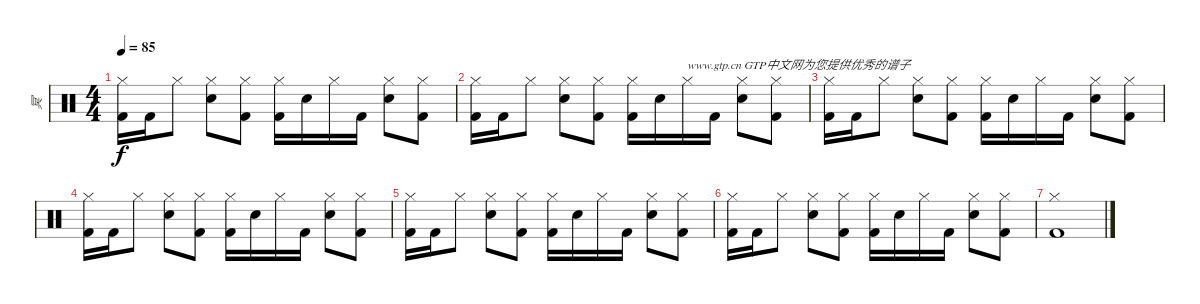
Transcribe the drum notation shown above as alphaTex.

\track ("冥" "冥") {instrument percussion}
\staff {score}
\articulation defaults
\ts (4 4)
\tempo 85
\clef neutral
\ks c
("Hi-Hat (closed)" "Kick (hit) 2").16{dy f} "Kick (hit) 2".16 "Hi-Hat (closed)".8 ("Hi-Hat (closed)" "Snare (hit) 2").8 ("Hi-Hat (closed)" "Kick (hit) 2").8 ("Hi-Hat (closed)" "Kick (hit) 2").16 "Snare (hit) 2".16 "Hi-Hat (closed)".16 "Kick (hit) 2".16 ("Hi-Hat (closed)" "Snare (hit) 2").8 ("Hi-Hat (closed)" "Kick (hit) 2").8 |
("Hi-Hat (closed)" "Kick (hit) 2").16 "Kick (hit) 2".16 "Hi-Hat (closed)".8 ("Hi-Hat (closed)" "Snare (hit) 2").8 ("Hi-Hat (closed)" "Kick (hit) 2").8 ("Hi-Hat (closed)" "Kick (hit) 2").16 "Snare (hit) 2".16 "Hi-Hat (closed)".16{txt "www.gtp.cn GTP中文网为您提供优秀的谱子 "} "Kick (hit) 2".16 ("Hi-Hat (closed)" "Snare (hit) 2").8 ("Hi-Hat (closed)" "Kick (hit) 2").8 |
("Hi-Hat (closed)" "Kick (hit) 2").16 "Kick (hit) 2".16 "Hi-Hat (closed)".8 ("Hi-Hat (closed)" "Snare (hit) 2").8 ("Hi-Hat (closed)" "Kick (hit) 2").8 ("Hi-Hat (closed)" "Kick (hit) 2").16 "Snare (hit) 2".16 "Hi-Hat (closed)".16 "Kick (hit) 2".16 ("Hi-Hat (closed)" "Snare (hit) 2").8 ("Hi-Hat (closed)" "Kick (hit) 2").8 |
("Hi-Hat (closed)" "Kick (hit) 2").16 "Kick (hit) 2".16 "Hi-Hat (closed)".8 ("Hi-Hat (closed)" "Snare (hit) 2").8 ("Hi-Hat (closed)" "Kick (hit) 2").8 ("Hi-Hat (closed)" "Kick (hit) 2").16 "Snare (hit) 2".16 "Hi-Hat (closed)".16 "Kick (hit) 2".16 ("Hi-Hat (closed)" "Snare (hit) 2").8 ("Hi-Hat (closed)" "Kick (hit) 2").8 |
("Hi-Hat (closed)" "Kick (hit) 2").16 "Kick (hit) 2".16 "Hi-Hat (closed)".8 ("Hi-Hat (closed)" "Snare (hit) 2").8 ("Hi-Hat (closed)" "Kick (hit) 2").8 ("Hi-Hat (closed)" "Kick (hit) 2").16 "Snare (hit) 2".16 "Hi-Hat (closed)".16 "Kick (hit) 2".16 ("Hi-Hat (closed)" "Snare (hit) 2").8 ("Hi-Hat (closed)" "Kick (hit) 2").8 |
("Hi-Hat (closed)" "Kick (hit) 2").16 "Kick (hit) 2".16 "Hi-Hat (closed)".8 ("Hi-Hat (closed)" "Snare (hit) 2").8 ("Hi-Hat (closed)" "Kick (hit) 2").8 ("Hi-Hat (closed)" "Kick (hit) 2").16 "Snare (hit) 2".16 "Hi-Hat (closed)".16 "Kick (hit) 2".16 ("Hi-Hat (closed)" "Snare (hit) 2").8 ("Hi-Hat (closed)" "Kick (hit) 2").8 |
("Hi-Hat (closed)" "Kick (hit) 2").1
